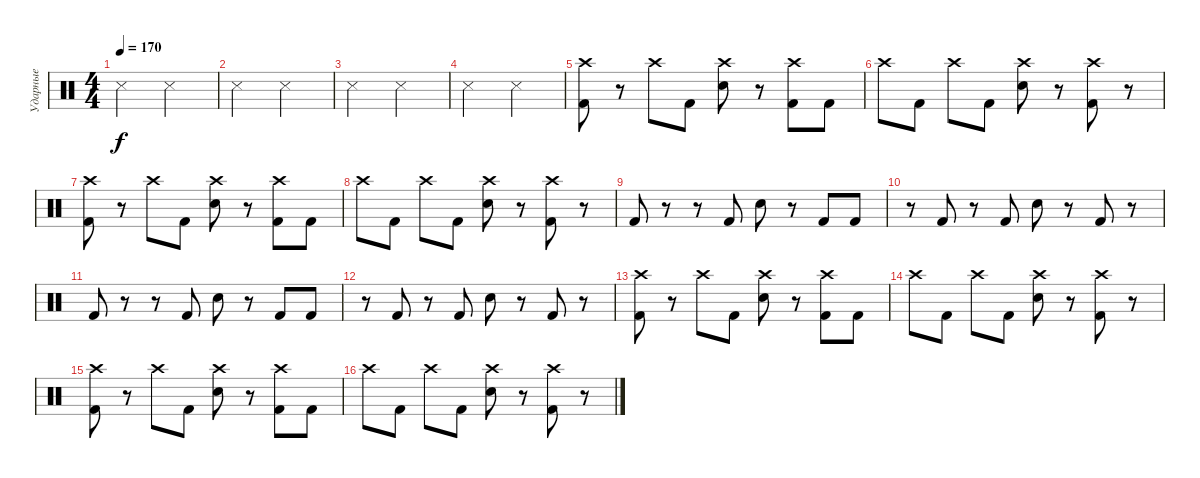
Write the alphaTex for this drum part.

\track ("Ударные" "Ударные") {instrument percussion}
\staff
\articulation defaults
\ts (4 4)
\tempo 170
\clef neutral
\ks c "Snare (side stick) 3".2{dy f} "Snare (side stick) 3".2
|
"Snare (side stick) 3".2 "Snare (side stick) 3".2 |
"Snare (side stick) 3".2 "Snare (side stick) 3".2 |
"Snare (side stick) 3".2 "Snare (side stick) 3".2 |
("Crash high (hit)" "Kick (hit) 2").8 r.8 "Crash high (hit)".8 "Kick (hit) 2".8 ("Crash high (hit)" "Electric Snare (hit)").8 r.8 ("Crash high (hit)" "Kick (hit) 2").8 "Kick (hit) 2".8 |
"Crash high (hit)".8 "Kick (hit) 2".8 "Crash high (hit)".8 "Kick (hit) 2".8 ("Crash high (hit)" "Electric Snare (hit)").8 r.8 ("Crash high (hit)" "Kick (hit) 2").8 r.8 |
("Crash high (hit)" "Kick (hit) 2").8 r.8 "Crash high (hit)".8 "Kick (hit) 2".8 ("Crash high (hit)" "Electric Snare (hit)").8 r.8 ("Crash high (hit)" "Kick (hit) 2").8 "Kick (hit) 2".8 |
"Crash high (hit)".8 "Kick (hit) 2".8 "Crash high (hit)".8 "Kick (hit) 2".8 ("Crash high (hit)" "Electric Snare (hit)").8 r.8 ("Crash high (hit)" "Kick (hit) 2").8 r.8 |
"Kick (hit) 2".8 r.8 r.8 "Kick (hit) 2".8 "Electric Snare (hit)".8 r.8 "Kick (hit) 2".8 "Kick (hit) 2".8 |
r.8 "Kick (hit) 2".8 r.8 "Kick (hit) 2".8 "Electric Snare (hit)".8 r.8 "Kick (hit) 2".8 r.8 |
"Kick (hit) 2".8 r.8 r.8 "Kick (hit) 2".8 "Electric Snare (hit)".8 r.8 "Kick (hit) 2".8 "Kick (hit) 2".8 |
r.8 "Kick (hit) 2".8 r.8 "Kick (hit) 2".8 "Electric Snare (hit)".8 r.8 "Kick (hit) 2".8 r.8 |
("Crash high (hit)" "Kick (hit) 2").8 r.8 "Crash high (hit)".8 "Kick (hit) 2".8 ("Crash high (hit)" "Electric Snare (hit)").8 r.8 ("Crash high (hit)" "Kick (hit) 2").8 "Kick (hit) 2".8 |
"Crash high (hit)".8 "Kick (hit) 2".8 "Crash high (hit)".8 "Kick (hit) 2".8 ("Crash high (hit)" "Electric Snare (hit)").8 r.8 ("Crash high (hit)" "Kick (hit) 2").8 r.8 |
("Crash high (hit)" "Kick (hit) 2").8 r.8 "Crash high (hit)".8 "Kick (hit) 2".8 ("Crash high (hit)" "Electric Snare (hit)").8 r.8 ("Crash high (hit)" "Kick (hit) 2").8 "Kick (hit) 2".8 |
"Crash high (hit)".8 "Kick (hit) 2".8 "Crash high (hit)".8 "Kick (hit) 2".8 ("Crash high (hit)" "Electric Snare (hit)").8 r.8 ("Crash high (hit)" "Kick (hit) 2").8 r.8
